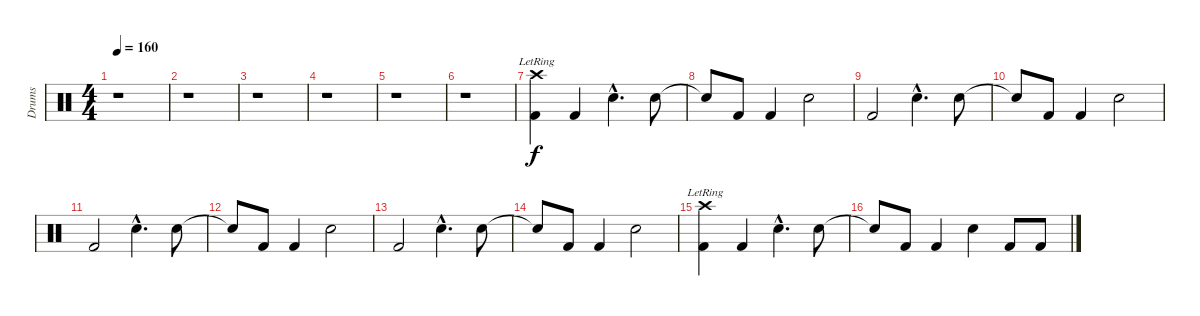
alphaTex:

\track ("Drums" "Drums") {instrument percussion}
\staff {score}
\articulation defaults
\ts (4 4)
\tempo 160
\clef neutral
\ks c
r.1{dy f} |
r.1 |
r.1 |
r.1 |
r.1 |
r.1 |
("Crash high (hit)"{lr} "Kick (hit) 2").4 "Kick (hit) 2".4 "Snare (hit) 2"{hac}.4{d} "Snare (hit) 2".8 |
"Snare (hit) 2"{t}.8 "Kick (hit) 2".8 "Kick (hit) 2".4 "Snare (hit) 2".2 |
"Kick (hit) 2".2 "Snare (hit) 2"{hac}.4{d} "Snare (hit) 2".8 |
"Snare (hit) 2"{t}.8 "Kick (hit) 2".8 "Kick (hit) 2".4 "Snare (hit) 2".2 |
"Kick (hit) 2".2 "Snare (hit) 2"{hac}.4{d} "Snare (hit) 2".8 |
"Snare (hit) 2"{t}.8 "Kick (hit) 2".8 "Kick (hit) 2".4 "Snare (hit) 2".2 |
"Kick (hit) 2".2 "Snare (hit) 2"{hac}.4{d} "Snare (hit) 2".8 |
"Snare (hit) 2"{t}.8 "Kick (hit) 2".8 "Kick (hit) 2".4 "Snare (hit) 2".2 |
("Crash high (hit)"{lr} "Kick (hit) 2").4 "Kick (hit) 2".4 "Snare (hit) 2"{hac}.4{d} "Snare (hit) 2".8 |
"Snare (hit) 2"{t}.8 "Kick (hit) 2".8 "Kick (hit) 2".4 "Snare (hit) 2".4 "Kick (hit) 2".8 "Kick (hit) 2".8
